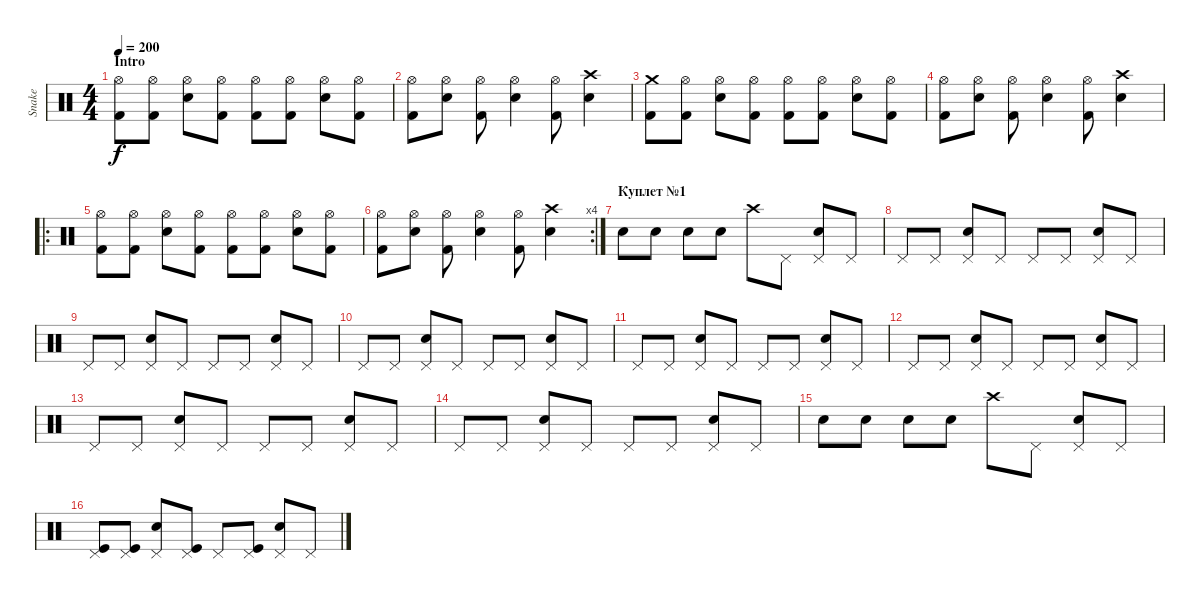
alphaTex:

\track ("Snake" "Snake") {instrument percussion}
\staff {score}
\articulation defaults
\ts (4 4)
\section ("" "Intro")
\tempo 200
\clef neutral
\ks c
("Hi-Hat (open)" "Kick (hit) 2").8{dy f} ("Hi-Hat (open)" "Kick (hit) 2").8 ("Hi-Hat (open)" "Electric Snare (hit)").8 ("Hi-Hat (open)" "Kick (hit) 2").8 ("Hi-Hat (open)" "Kick (hit) 2").8 ("Hi-Hat (open)" "Kick (hit) 2").8 ("Hi-Hat (open)" "Electric Snare (hit)").8 ("Hi-Hat (open)" "Kick (hit) 2").8 |
("Hi-Hat (open)" "Kick (hit) 2").8 ("Hi-Hat (open)" "Electric Snare (hit)").8 ("Hi-Hat (open)" "Kick (hit) 2").8 ("Hi-Hat (open)" "Electric Snare (hit)").4 ("Hi-Hat (open)" "Kick (hit) 2").8 ("Crash high (hit)" "Electric Snare (hit)").4 |
("Crash medium (hit)" "Kick (hit) 2").8 ("Hi-Hat (open)" "Kick (hit) 2").8 ("Hi-Hat (open)" "Electric Snare (hit)").8 ("Hi-Hat (open)" "Kick (hit) 2").8 ("Hi-Hat (open)" "Kick (hit) 2").8 ("Hi-Hat (open)" "Kick (hit) 2").8 ("Hi-Hat (open)" "Electric Snare (hit)").8 ("Hi-Hat (open)" "Kick (hit) 2").8 |
("Hi-Hat (open)" "Kick (hit) 2").8 ("Hi-Hat (open)" "Electric Snare (hit)").8 ("Hi-Hat (open)" "Kick (hit) 2").8 ("Hi-Hat (open)" "Electric Snare (hit)").4 ("Hi-Hat (open)" "Kick (hit) 2").8 ("Crash high (hit)" "Electric Snare (hit)").4 |
\ro
("Hi-Hat (open)" "Kick (hit) 2").8 ("Hi-Hat (open)" "Kick (hit) 2").8 ("Hi-Hat (open)" "Electric Snare (hit)").8 ("Hi-Hat (open)" "Kick (hit) 2").8 ("Hi-Hat (open)" "Kick (hit) 2").8 ("Hi-Hat (open)" "Kick (hit) 2").8 ("Hi-Hat (open)" "Electric Snare (hit)").8 ("Hi-Hat (open)" "Kick (hit) 2").8 |
\rc 4
("Hi-Hat (open)" "Kick (hit) 2").8 ("Hi-Hat (open)" "Electric Snare (hit)").8 ("Hi-Hat (open)" "Kick (hit) 2").8 ("Hi-Hat (open)" "Electric Snare (hit)").4 ("Hi-Hat (open)" "Kick (hit) 2").8 ("Crash high (hit)" "Electric Snare (hit)").4 |
\section ("" "Куплет №1")
"Electric Snare (hit)".8 "Electric Snare (hit)".8 "Electric Snare (hit)".8 "Electric Snare (hit)".8 "Crash high (hit)".8 "Pedal Hi-Hat (hit)".8 ("Pedal Hi-Hat (hit)" "Electric Snare (hit)").8 "Pedal Hi-Hat (hit)".8 |
"Pedal Hi-Hat (hit)".8 "Pedal Hi-Hat (hit)".8 ("Pedal Hi-Hat (hit)" "Electric Snare (hit)").8 "Pedal Hi-Hat (hit)".8 "Pedal Hi-Hat (hit)".8 "Pedal Hi-Hat (hit)".8 ("Pedal Hi-Hat (hit)" "Electric Snare (hit)").8 "Pedal Hi-Hat (hit)".8 |
"Pedal Hi-Hat (hit)".8 "Pedal Hi-Hat (hit)".8 ("Pedal Hi-Hat (hit)" "Electric Snare (hit)").8 "Pedal Hi-Hat (hit)".8 "Pedal Hi-Hat (hit)".8 "Pedal Hi-Hat (hit)".8 ("Pedal Hi-Hat (hit)" "Electric Snare (hit)").8 "Pedal Hi-Hat (hit)".8 |
"Pedal Hi-Hat (hit)".8 "Pedal Hi-Hat (hit)".8 ("Pedal Hi-Hat (hit)" "Electric Snare (hit)").8 "Pedal Hi-Hat (hit)".8 "Pedal Hi-Hat (hit)".8 "Pedal Hi-Hat (hit)".8 ("Pedal Hi-Hat (hit)" "Electric Snare (hit)").8 "Pedal Hi-Hat (hit)".8 |
"Pedal Hi-Hat (hit)".8 "Pedal Hi-Hat (hit)".8 ("Pedal Hi-Hat (hit)" "Electric Snare (hit)").8 "Pedal Hi-Hat (hit)".8 "Pedal Hi-Hat (hit)".8 "Pedal Hi-Hat (hit)".8 ("Pedal Hi-Hat (hit)" "Electric Snare (hit)").8 "Pedal Hi-Hat (hit)".8 |
"Pedal Hi-Hat (hit)".8 "Pedal Hi-Hat (hit)".8 ("Pedal Hi-Hat (hit)" "Electric Snare (hit)").8 "Pedal Hi-Hat (hit)".8 "Pedal Hi-Hat (hit)".8 "Pedal Hi-Hat (hit)".8 ("Pedal Hi-Hat (hit)" "Electric Snare (hit)").8 "Pedal Hi-Hat (hit)".8 |
"Pedal Hi-Hat (hit)".8 "Pedal Hi-Hat (hit)".8 ("Pedal Hi-Hat (hit)" "Electric Snare (hit)").8 "Pedal Hi-Hat (hit)".8 "Pedal Hi-Hat (hit)".8 "Pedal Hi-Hat (hit)".8 ("Pedal Hi-Hat (hit)" "Electric Snare (hit)").8 "Pedal Hi-Hat (hit)".8 |
"Pedal Hi-Hat (hit)".8 "Pedal Hi-Hat (hit)".8 ("Pedal Hi-Hat (hit)" "Electric Snare (hit)").8 "Pedal Hi-Hat (hit)".8 "Pedal Hi-Hat (hit)".8 "Pedal Hi-Hat (hit)".8 ("Pedal Hi-Hat (hit)" "Electric Snare (hit)").8 "Pedal Hi-Hat (hit)".8 |
"Electric Snare (hit)".8 "Electric Snare (hit)".8 "Electric Snare (hit)".8 "Electric Snare (hit)".8 "Crash high (hit)".8 "Pedal Hi-Hat (hit)".8 ("Pedal Hi-Hat (hit)" "Electric Snare (hit)").8 "Pedal Hi-Hat (hit)".8 |
("Pedal Hi-Hat (hit)" "Kick (hit)").8 ("Pedal Hi-Hat (hit)" "Kick (hit)").8 ("Pedal Hi-Hat (hit)" "Electric Snare (hit)").8 ("Pedal Hi-Hat (hit)" "Kick (hit)").8 "Pedal Hi-Hat (hit)".8 ("Pedal Hi-Hat (hit)" "Kick (hit)").8 ("Pedal Hi-Hat (hit)" "Electric Snare (hit)").8 "Pedal Hi-Hat (hit)".8
